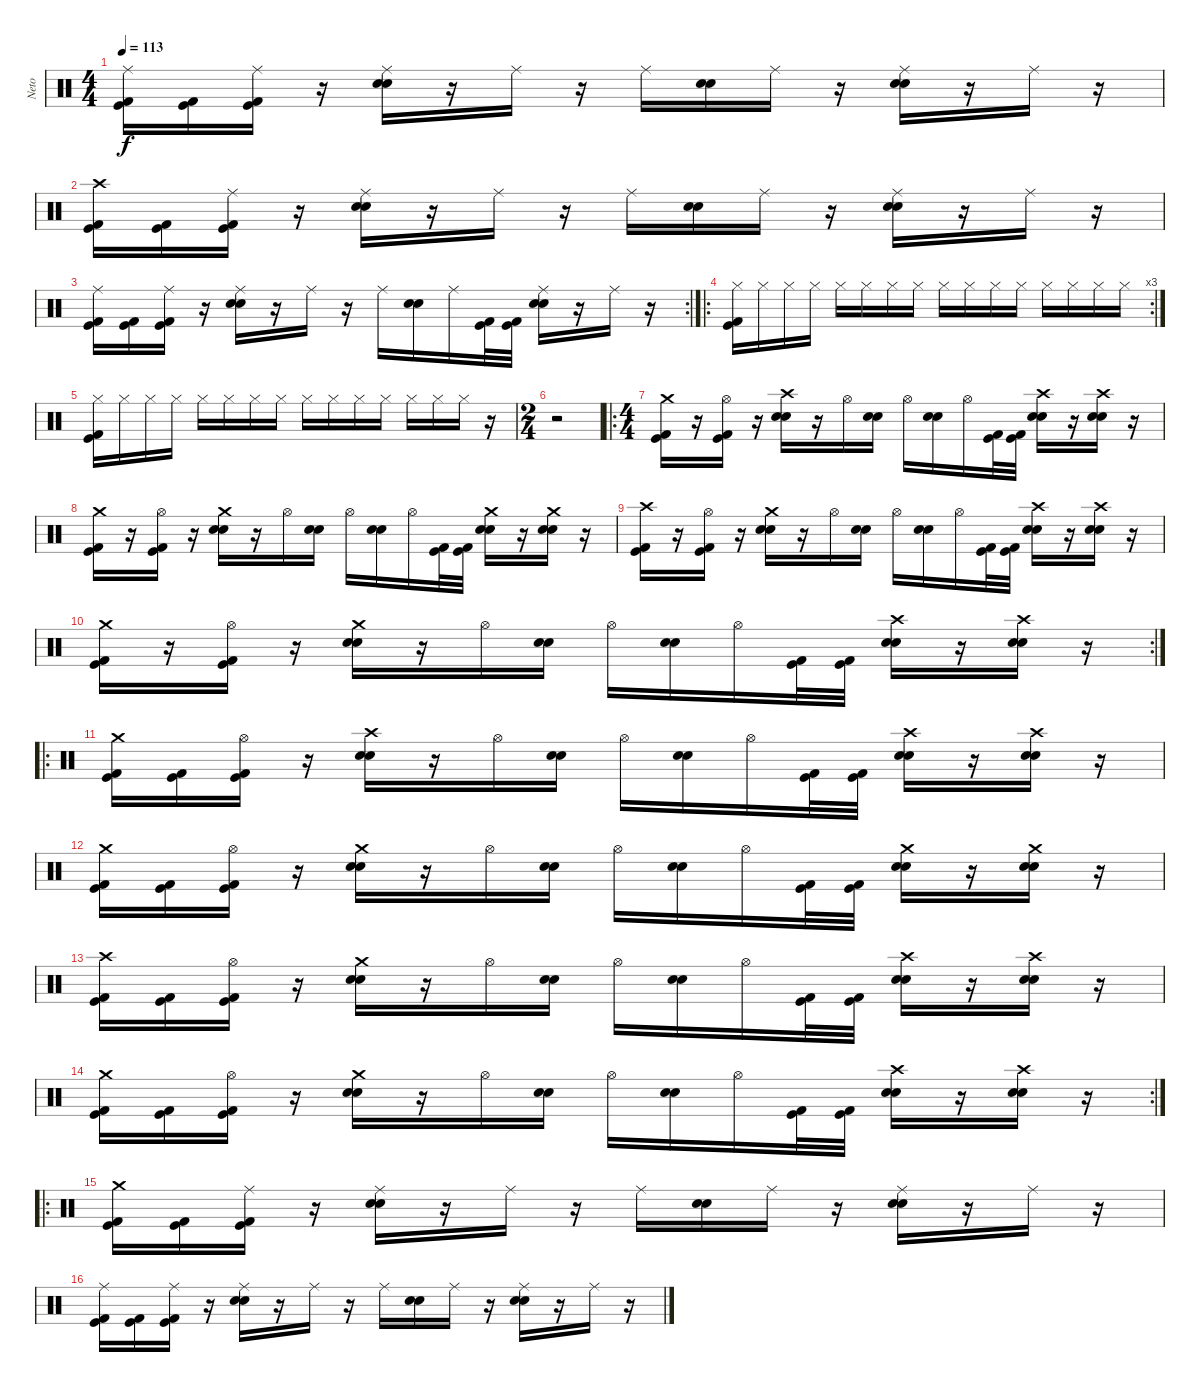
\track ("Neto" "Neto") {instrument percussion}
\staff {score}
\articulation defaults
\ts (4 4)
\tempo 113
\clef neutral
\ks c
("Ride (middle)" "Kick (hit)" "Kick (hit) 2").16{dy f} ("Kick (hit)" "Kick (hit) 2").16 ("Ride (middle)" "Kick (hit)" "Kick (hit) 2").16 r.16 ("Ride (middle)" "Snare (hit) 2" "Snare (hit) 2").16 r.16 "Ride (middle)".16 r.16 "Ride (middle)".16 ("Snare (hit) 2" "Snare (hit) 2").16 "Ride (middle)".16 r.16 ("Ride (middle)" "Snare (hit) 2" "Snare (hit) 2").16 r.16 "Ride (middle)".16 r.16 |
("Crash high (hit)" "Kick (hit)" "Kick (hit) 2").16 ("Kick (hit)" "Kick (hit) 2").16 ("Ride (middle)" "Kick (hit)" "Kick (hit) 2").16 r.16 ("Ride (middle)" "Snare (hit) 2" "Snare (hit) 2").16 r.16 "Ride (middle)".16 r.16 "Ride (middle)".16 ("Snare (hit) 2" "Snare (hit) 2").16 "Ride (middle)".16 r.16 ("Ride (middle)" "Snare (hit) 2" "Snare (hit) 2").16 r.16 "Ride (middle)".16 r.16 |
\rc 2
("Ride (middle)" "Kick (hit)" "Kick (hit) 2").16 ("Kick (hit)" "Kick (hit) 2").16 ("Ride (middle)" "Kick (hit)" "Kick (hit) 2").16 r.16 ("Ride (middle)" "Snare (hit) 2" "Snare (hit) 2").16 r.16 "Ride (middle)".16 r.16 "Ride (middle)".16 ("Snare (hit) 2" "Snare (hit) 2").16 "Ride (middle)".16 ("Kick (hit)" "Kick (hit) 2").32 ("Kick (hit)" "Kick (hit) 2").32 ("Ride (middle)" "Snare (hit) 2" "Snare (hit) 2").16 r.16 "Ride (middle)".16 r.16 |
\ro
\rc 3
("Hi-Hat (closed)" "Kick (hit)" "Kick (hit) 2").16 "Hi-Hat (closed)".16 "Hi-Hat (closed)".16 "Hi-Hat (closed)".16 "Hi-Hat (closed)".16 "Hi-Hat (closed)".16 "Hi-Hat (closed)".16 "Hi-Hat (closed)".16 "Hi-Hat (closed)".16 "Hi-Hat (closed)".16 "Hi-Hat (closed)".16 "Hi-Hat (closed)".16 "Hi-Hat (closed)".16 "Hi-Hat (closed)".16 "Hi-Hat (closed)".16 "Hi-Hat (closed)".16 |
("Hi-Hat (closed)" "Kick (hit)" "Kick (hit) 2").16 "Hi-Hat (closed)".16 "Hi-Hat (closed)".16 "Hi-Hat (closed)".16 "Hi-Hat (closed)".16 "Hi-Hat (closed)".16 "Hi-Hat (closed)".16 "Hi-Hat (closed)".16 "Hi-Hat (closed)".16 "Hi-Hat (closed)".16 "Hi-Hat (closed)".16 "Hi-Hat (closed)".16 "Hi-Hat (closed)".16 "Hi-Hat (closed)".16 "Hi-Hat (closed)".16 r.16 |
\ts (2 4)
r.2 |
\ro
\ts (4 4)
("Crash medium (hit)" "Kick (hit)" "Kick (hit) 2").16 r.16 ("Hi-Hat (open)" "Kick (hit)" "Kick (hit) 2").16 r.16 ("Crash high (hit)" "Snare (hit) 2" "Snare (hit) 2").16 r.16 "Hi-Hat (open)".16 ("Snare (hit) 2" "Snare (hit) 2").16 "Hi-Hat (open)".16 ("Snare (hit) 2" "Snare (hit) 2").16 "Hi-Hat (open)".16 ("Kick (hit)" "Kick (hit) 2").32 ("Kick (hit)" "Kick (hit) 2").32 ("Crash high (hit)" "Snare (hit) 2" "Snare (hit) 2").16 r.16 ("Crash high (hit)" "Snare (hit) 2" "Snare (hit) 2").16 r.16 |
("Crash medium (hit)" "Kick (hit)" "Kick (hit) 2").16 r.16 ("Hi-Hat (open)" "Kick (hit)" "Kick (hit) 2").16 r.16 ("Crash medium (hit)" "Snare (hit) 2" "Snare (hit) 2").16 r.16 "Hi-Hat (open)".16 ("Snare (hit) 2" "Snare (hit) 2").16 "Hi-Hat (open)".16 ("Snare (hit) 2" "Snare (hit) 2").16 "Hi-Hat (open)".16 ("Kick (hit)" "Kick (hit) 2").32 ("Kick (hit)" "Kick (hit) 2").32 ("Crash medium (hit)" "Snare (hit) 2" "Snare (hit) 2").16 r.16 ("Crash medium (hit)" "Snare (hit) 2" "Snare (hit) 2").16 r.16 |
("Crash high (hit)" "Kick (hit)" "Kick (hit) 2").16 r.16 ("Hi-Hat (open)" "Kick (hit)" "Kick (hit) 2").16 r.16 ("Crash medium (hit)" "Snare (hit) 2" "Snare (hit) 2").16 r.16 "Hi-Hat (open)".16 ("Snare (hit) 2" "Snare (hit) 2").16 "Hi-Hat (open)".16 ("Snare (hit) 2" "Snare (hit) 2").16 "Hi-Hat (open)".16 ("Kick (hit)" "Kick (hit) 2").32 ("Kick (hit)" "Kick (hit) 2").32 ("Crash high (hit)" "Snare (hit) 2" "Snare (hit) 2").16 r.16 ("Crash high (hit)" "Snare (hit) 2" "Snare (hit) 2").16 r.16 |
\rc 2
("Crash medium (hit)" "Kick (hit)" "Kick (hit) 2").16 r.16 ("Hi-Hat (open)" "Kick (hit)" "Kick (hit) 2").16 r.16 ("Crash medium (hit)" "Snare (hit) 2" "Snare (hit) 2").16 r.16 "Hi-Hat (open)".16 ("Snare (hit) 2" "Snare (hit) 2").16 "Hi-Hat (open)".16 ("Snare (hit) 2" "Snare (hit) 2").16 "Hi-Hat (open)".16 ("Kick (hit)" "Kick (hit) 2").32 ("Kick (hit)" "Kick (hit) 2").32 ("Crash high (hit)" "Snare (hit) 2" "Snare (hit) 2").16 r.16 ("Crash high (hit)" "Snare (hit) 2" "Snare (hit) 2").16 r.16 |
\ro
("Crash medium (hit)" "Kick (hit)" "Kick (hit) 2").16 ("Kick (hit)" "Kick (hit) 2").16 ("Hi-Hat (open)" "Kick (hit)" "Kick (hit) 2").16 r.16 ("Crash high (hit)" "Snare (hit) 2" "Snare (hit) 2").16 r.16 "Hi-Hat (open)".16 ("Snare (hit) 2" "Snare (hit) 2").16 "Hi-Hat (open)".16 ("Snare (hit) 2" "Snare (hit) 2").16 "Hi-Hat (open)".16 ("Kick (hit)" "Kick (hit) 2").32 ("Kick (hit)" "Kick (hit) 2").32 ("Crash high (hit)" "Snare (hit) 2" "Snare (hit) 2").16 r.16 ("Crash high (hit)" "Snare (hit) 2" "Snare (hit) 2").16 r.16 |
("Crash medium (hit)" "Kick (hit)" "Kick (hit) 2").16 ("Kick (hit)" "Kick (hit) 2").16 ("Hi-Hat (open)" "Kick (hit)" "Kick (hit) 2").16 r.16 ("Crash medium (hit)" "Snare (hit) 2" "Snare (hit) 2").16 r.16 "Hi-Hat (open)".16 ("Snare (hit) 2" "Snare (hit) 2").16 "Hi-Hat (open)".16 ("Snare (hit) 2" "Snare (hit) 2").16 "Hi-Hat (open)".16 ("Kick (hit)" "Kick (hit) 2").32 ("Kick (hit)" "Kick (hit) 2").32 ("Crash medium (hit)" "Snare (hit) 2" "Snare (hit) 2").16 r.16 ("Crash medium (hit)" "Snare (hit) 2" "Snare (hit) 2").16 r.16 |
("Crash high (hit)" "Kick (hit)" "Kick (hit) 2").16 ("Kick (hit)" "Kick (hit) 2").16 ("Hi-Hat (open)" "Kick (hit)" "Kick (hit) 2").16 r.16 ("Crash medium (hit)" "Snare (hit) 2" "Snare (hit) 2").16 r.16 "Hi-Hat (open)".16 ("Snare (hit) 2" "Snare (hit) 2").16 "Hi-Hat (open)".16 ("Snare (hit) 2" "Snare (hit) 2").16 "Hi-Hat (open)".16 ("Kick (hit)" "Kick (hit) 2").32 ("Kick (hit)" "Kick (hit) 2").32 ("Crash high (hit)" "Snare (hit) 2" "Snare (hit) 2").16 r.16 ("Crash high (hit)" "Snare (hit) 2" "Snare (hit) 2").16 r.16 |
\rc 2
("Crash medium (hit)" "Kick (hit)" "Kick (hit) 2").16 ("Kick (hit)" "Kick (hit) 2").16 ("Hi-Hat (open)" "Kick (hit)" "Kick (hit) 2").16 r.16 ("Crash medium (hit)" "Snare (hit) 2" "Snare (hit) 2").16 r.16 "Hi-Hat (open)".16 ("Snare (hit) 2" "Snare (hit) 2").16 "Hi-Hat (open)".16 ("Snare (hit) 2" "Snare (hit) 2").16 "Hi-Hat (open)".16 ("Kick (hit)" "Kick (hit) 2").32 ("Kick (hit)" "Kick (hit) 2").32 ("Crash high (hit)" "Snare (hit) 2" "Snare (hit) 2").16 r.16 ("Crash high (hit)" "Snare (hit) 2" "Snare (hit) 2").16 r.16 |
\ro
("Crash medium (hit)" "Kick (hit)" "Kick (hit) 2").16 ("Kick (hit)" "Kick (hit) 2").16 ("Ride (middle)" "Kick (hit)" "Kick (hit) 2").16 r.16 ("Ride (middle)" "Snare (hit) 2" "Snare (hit) 2").16 r.16 "Ride (middle)".16 r.16 "Ride (middle)".16 ("Snare (hit) 2" "Snare (hit) 2").16 "Ride (middle)".16 r.16 ("Ride (middle)" "Snare (hit) 2" "Snare (hit) 2").16 r.16 "Ride (middle)".16 r.16 |
("Ride (middle)" "Kick (hit)" "Kick (hit) 2").16 ("Kick (hit)" "Kick (hit) 2").16 ("Ride (middle)" "Kick (hit)" "Kick (hit) 2").16 r.16 ("Ride (middle)" "Snare (hit) 2" "Snare (hit) 2").16 r.16 "Ride (middle)".16 r.16 "Ride (middle)".16 ("Snare (hit) 2" "Snare (hit) 2").16 "Ride (middle)".16 r.16 ("Ride (middle)" "Snare (hit) 2" "Snare (hit) 2").16 r.16 "Ride (middle)".16 r.16
